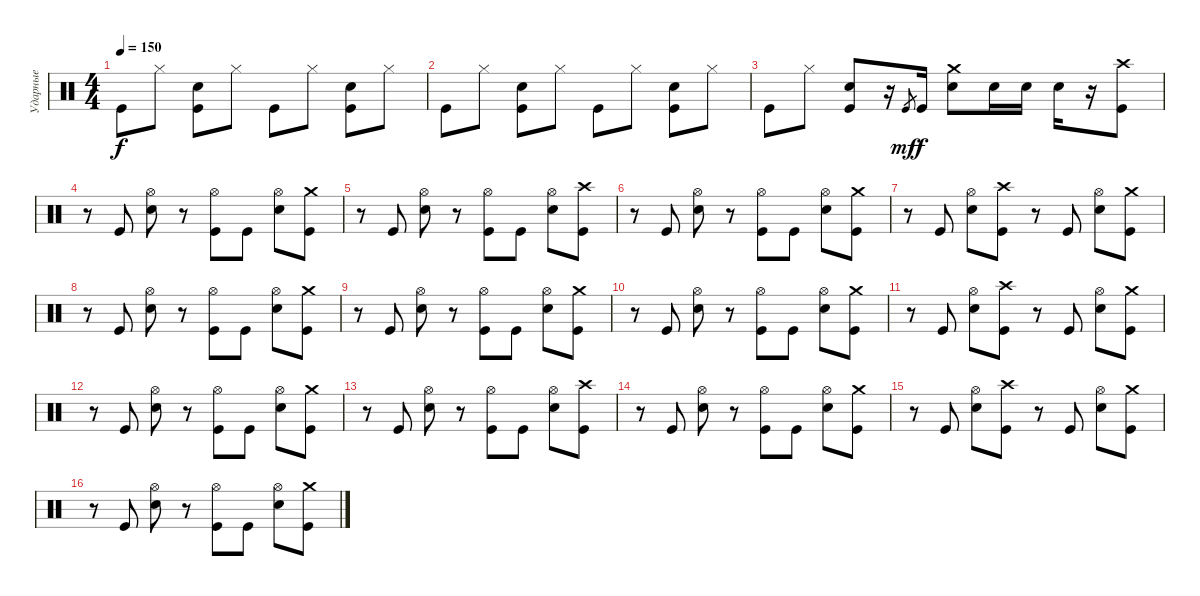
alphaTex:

\track ("Ударные" "Ударные") {instrument percussion}
\staff {score}
\articulation defaults
\ts (4 4)
\tempo 150
\clef neutral
\ks c "Kick (hit)".8{dy f} "Hi-Hat (closed)".8
("Electric Snare (hit)" "Kick (hit)").8 "Hi-Hat (closed)".8 "Kick (hit)".8 "Hi-Hat (closed)".8 ("Electric Snare (hit)" "Kick (hit)").8 "Hi-Hat (closed)".8 |
"Kick (hit)".8 "Hi-Hat (closed)".8 ("Electric Snare (hit)" "Kick (hit)").8 "Hi-Hat (closed)".8 "Kick (hit)".8 "Hi-Hat (closed)".8 ("Electric Snare (hit)" "Kick (hit)").8 "Hi-Hat (closed)".8 |
"Kick (hit)".8 "Hi-Hat (closed)".8 ("Electric Snare (hit)" "Kick (hit)").8 r.16 "Kick (hit)".8{gr dy mf} "Kick (hit)".16{dy f} ("Crash medium (hit)" "Electric Snare (hit)").8 "Electric Snare (hit)".16 "Electric Snare (hit)".16 "Electric Snare (hit)".16 r.16 ("Crash high (hit)" "Kick (hit)").8 |
r.8 "Kick (hit)".8 ("Hi-Hat (open)" "Electric Snare (hit)").8 r.8 ("Hi-Hat (open)" "Kick (hit)").8 "Kick (hit)".8 ("Hi-Hat (open)" "Electric Snare (hit)").8 ("Crash medium (hit)" "Kick (hit)").8 |
r.8 "Kick (hit)".8 ("Hi-Hat (open)" "Electric Snare (hit)").8 r.8 ("Hi-Hat (open)" "Kick (hit)").8 "Kick (hit)".8 ("Hi-Hat (open)" "Electric Snare (hit)").8 ("Crash high (hit)" "Kick (hit)").8 |
r.8 "Kick (hit)".8 ("Hi-Hat (open)" "Electric Snare (hit)").8 r.8 ("Hi-Hat (open)" "Kick (hit)").8 "Kick (hit)".8 ("Hi-Hat (open)" "Electric Snare (hit)").8 ("Crash medium (hit)" "Kick (hit)").8 |
r.8 "Kick (hit)".8 ("Hi-Hat (open)" "Electric Snare (hit)").8 ("Crash high (hit)" "Kick (hit)").8 r.8 "Kick (hit)".8 ("Hi-Hat (open)" "Electric Snare (hit)").8 ("Crash medium (hit)" "Kick (hit)").8 |
r.8 "Kick (hit)".8 ("Hi-Hat (open)" "Electric Snare (hit)").8 r.8 ("Hi-Hat (open)" "Kick (hit)").8 "Kick (hit)".8 ("Hi-Hat (open)" "Electric Snare (hit)").8 ("Crash medium (hit)" "Kick (hit)").8 |
r.8 "Kick (hit)".8 ("Hi-Hat (open)" "Electric Snare (hit)").8 r.8 ("Hi-Hat (open)" "Kick (hit)").8 "Kick (hit)".8 ("Hi-Hat (open)" "Electric Snare (hit)").8 ("Crash medium (hit)" "Kick (hit)").8 |
r.8 "Kick (hit)".8 ("Hi-Hat (open)" "Electric Snare (hit)").8 r.8 ("Hi-Hat (open)" "Kick (hit)").8 "Kick (hit)".8 ("Hi-Hat (open)" "Electric Snare (hit)").8 ("Crash medium (hit)" "Kick (hit)").8 |
r.8 "Kick (hit)".8 ("Hi-Hat (open)" "Electric Snare (hit)").8 ("Crash high (hit)" "Kick (hit)").8 r.8 "Kick (hit)".8 ("Hi-Hat (open)" "Electric Snare (hit)").8 ("Crash medium (hit)" "Kick (hit)").8 |
r.8 "Kick (hit)".8 ("Hi-Hat (open)" "Electric Snare (hit)").8 r.8 ("Hi-Hat (open)" "Kick (hit)").8 "Kick (hit)".8 ("Hi-Hat (open)" "Electric Snare (hit)").8 ("Crash medium (hit)" "Kick (hit)").8 |
r.8 "Kick (hit)".8 ("Hi-Hat (open)" "Electric Snare (hit)").8 r.8 ("Hi-Hat (open)" "Kick (hit)").8 "Kick (hit)".8 ("Hi-Hat (open)" "Electric Snare (hit)").8 ("Crash high (hit)" "Kick (hit)").8 |
r.8 "Kick (hit)".8 ("Hi-Hat (open)" "Electric Snare (hit)").8 r.8 ("Hi-Hat (open)" "Kick (hit)").8 "Kick (hit)".8 ("Hi-Hat (open)" "Electric Snare (hit)").8 ("Crash medium (hit)" "Kick (hit)").8 |
r.8 "Kick (hit)".8 ("Hi-Hat (open)" "Electric Snare (hit)").8 ("Crash high (hit)" "Kick (hit)").8 r.8 "Kick (hit)".8 ("Hi-Hat (open)" "Electric Snare (hit)").8 ("Crash medium (hit)" "Kick (hit)").8 |
r.8 "Kick (hit)".8 ("Hi-Hat (open)" "Electric Snare (hit)").8 r.8 ("Hi-Hat (open)" "Kick (hit)").8 "Kick (hit)".8 ("Hi-Hat (open)" "Electric Snare (hit)").8 ("Crash medium (hit)" "Kick (hit)").8
